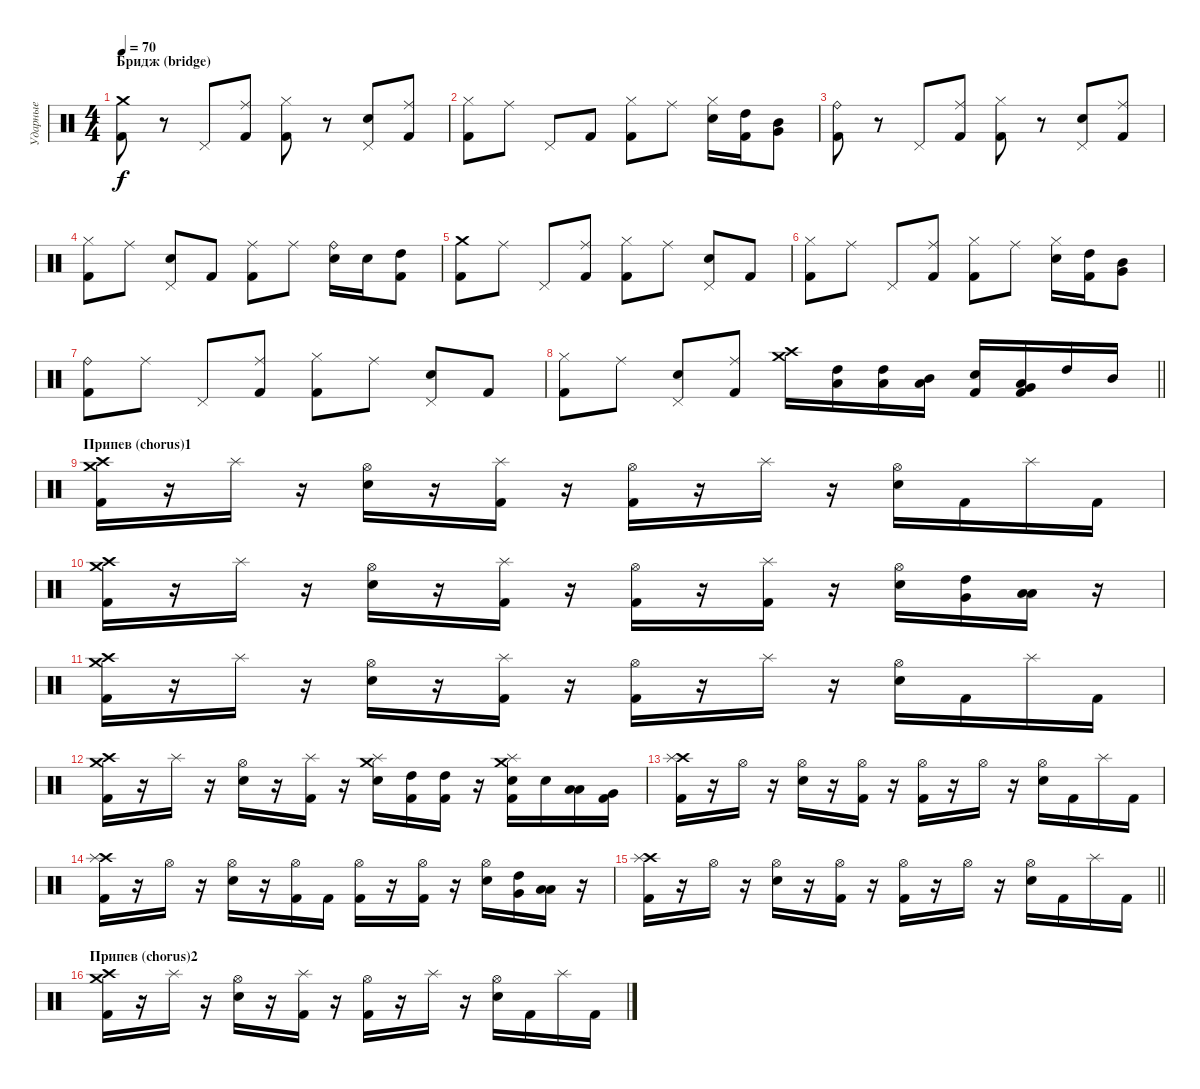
\track ("Ударные" "Ударные") {instrument percussion}
\staff {score}
\articulation defaults
\ts (4 4)
\section ("" "Бридж (bridge)")
\tempo 70
\clef neutral
\ks c
("Crash medium (hit)" "Kick (hit) 2").8{dy f} r.8 "Pedal Hi-Hat (hit)".8 ("Ride (middle)" "Kick (hit) 2").8 ("Hi-Hat (closed)" "Kick (hit) 2").8 r.8 ("Pedal Hi-Hat (hit)" "Snare (hit) 2").8 ("Ride (middle)" "Kick (hit) 2").8 |
("Hi-Hat (closed)" "Kick (hit) 2").8 "Ride (middle)".8 "Pedal Hi-Hat (hit)".8 "Kick (hit) 2".8 ("Hi-Hat (closed)" "Kick (hit) 2").8 "Ride (middle)".8 ("Hi-Hat (closed)" "Snare (hit) 2").16 ("High Tom (hit)" "Kick (hit) 2").16 ("Mid Tom (hit)" "Very Low Tom (hit)").8 |
("Ride (bell)" "Kick (hit) 2").8 r.8 "Pedal Hi-Hat (hit)".8 ("Ride (middle)" "Kick (hit) 2").8 ("Hi-Hat (closed)" "Kick (hit) 2").8 r.8 ("Pedal Hi-Hat (hit)" "Snare (hit) 2").8 ("Ride (middle)" "Kick (hit) 2").8 |
("Hi-Hat (closed)" "Kick (hit) 2").8 "Ride (middle)".8 ("Pedal Hi-Hat (hit)" "Snare (hit) 2").8 "Kick (hit) 2".8 ("Ride (middle)" "Kick (hit) 2").8 "Ride (middle)".8 ("Ride (bell)" "Snare (hit) 2").16 "Snare (hit) 2".16 ("High Tom (hit)" "Kick (hit) 2").8 |
("Crash medium (hit)" "Kick (hit) 2").8 "Ride (middle)".8 "Pedal Hi-Hat (hit)".8 ("Ride (middle)" "Kick (hit) 2").8 ("Hi-Hat (closed)" "Kick (hit) 2").8 "Ride (middle)".8 ("Pedal Hi-Hat (hit)" "Snare (hit) 2").8 "Kick (hit) 2".8 |
("Hi-Hat (closed)" "Kick (hit) 2").8 "Ride (middle)".8 "Pedal Hi-Hat (hit)".8 ("Ride (middle)" "Kick (hit) 2").8 ("Hi-Hat (closed)" "Kick (hit) 2").8 "Ride (middle)".8 ("Hi-Hat (closed)" "Snare (hit) 2").16 ("High Tom (hit)" "Kick (hit) 2").16 ("Mid Tom (hit)" "Very Low Tom (hit)").8 |
("Ride (bell)" "Kick (hit) 2").8 "Ride (middle)".8 "Pedal Hi-Hat (hit)".8 ("Ride (middle)" "Kick (hit) 2").8 ("Hi-Hat (closed)" "Kick (hit) 2").8 "Ride (middle)".8 ("Pedal Hi-Hat (hit)" "Snare (hit) 2").8 "Kick (hit) 2".8 |
\barLineRight lightlight
("Hi-Hat (closed)" "Kick (hit) 2").8 "Ride (middle)".8 ("Pedal Hi-Hat (hit)" "Snare (hit) 2").8 ("Ride (middle)" "Kick (hit) 2").8 ("Crash high (hit)" "Crash medium (hit)").16 ("High Tom (hit)" "Low Floor Tom (hit)").16 ("High Tom (hit)" "Low Floor Tom (hit)").16 ("Mid Tom (hit)" "Low Floor Tom (hit)").16 ("Snare (hit) 2" "Kick (hit) 2").16 ("Low Tom (hit)" "Very Low Tom (hit)" "Kick (hit) 2").16 "High Tom (hit)".16 "Mid Tom (hit)".16 |
\section ("" "Припев (chorus)1")
("Crash high (hit)" "Crash medium (hit)" "Kick (hit) 2").16 r.16 "Splash (hit)".16 r.16 ("Hi-Hat (open)" "Snare (hit) 2").16 r.16 ("Splash (hit)" "Kick (hit) 2").16 r.16 ("Hi-Hat (open)" "Kick (hit) 2").16 r.16 "Splash (hit)".16 r.16 ("Hi-Hat (open)" "Snare (hit) 2").16 "Kick (hit) 2".16 "Splash (hit)".16 "Kick (hit) 2".16 |
("Crash high (hit)" "Crash medium (hit)" "Kick (hit) 2").16 r.16 "Splash (hit)".16 r.16 ("Hi-Hat (open)" "Snare (hit) 2").16 r.16 ("Splash (hit)" "Kick (hit) 2").16 r.16 ("Hi-Hat (open)" "Kick (hit) 2").16 r.16 ("Splash (hit)" "Kick (hit) 2").16 r.16 ("Hi-Hat (open)" "Snare (hit) 2").16 ("High Tom (hit)" "Very Low Tom (hit)").16 ("Low Tom (hit)" "Low Floor Tom (hit)").16 r.16 |
("Crash high (hit)" "Crash medium (hit)" "Kick (hit) 2").16 r.16 "Splash (hit)".16 r.16 ("Hi-Hat (open)" "Snare (hit) 2").16 r.16 ("Splash (hit)" "Kick (hit) 2").16 r.16 ("Hi-Hat (open)" "Kick (hit) 2").16 r.16 "Splash (hit)".16 r.16 ("Hi-Hat (open)" "Snare (hit) 2").16 "Kick (hit) 2".16 "Splash (hit)".16 "Kick (hit) 2".16 |
("Crash high (hit)" "Crash medium (hit)" "Kick (hit) 2").16 r.16 "Splash (hit)".16 r.16 ("Hi-Hat (open)" "Snare (hit) 2").16 r.16 ("Splash (hit)" "Kick (hit) 2").16 r.16 ("Crash medium (hit)" "Splash (hit)" "Snare (hit) 2").16 ("High Tom (hit)" "Kick (hit) 2").16 ("High Tom (hit)" "Kick (hit) 2").16 r.16 ("Crash medium (hit)" "Splash (hit)" "Snare (hit) 2" "Kick (hit) 2").16 "Snare (hit) 2".16 ("Low Tom (hit)" "Low Floor Tom (hit)").16 ("Very Low Tom (hit)" "Kick (hit) 2").16 |
("Crash high (hit)" "Splash (hit)" "Kick (hit) 2").16 r.16 "Hi-Hat (open)".16 r.16 ("Hi-Hat (open)" "Snare (hit) 2").16 r.16 ("Hi-Hat (open)" "Kick (hit) 2").16 r.16 ("Hi-Hat (open)" "Kick (hit) 2").16 r.16 "Hi-Hat (open)".16 r.16 ("Hi-Hat (open)" "Snare (hit) 2").16 "Kick (hit) 2".16 "Splash (hit)".16 "Kick (hit) 2".16 |
("Crash high (hit)" "Splash (hit)" "Kick (hit) 2").16 r.16 "Hi-Hat (open)".16 r.16 ("Hi-Hat (open)" "Snare (hit) 2").16 r.16 ("Hi-Hat (open)" "Kick (hit) 2").16 "Kick (hit) 2".16 ("Hi-Hat (open)" "Kick (hit) 2").16 r.16 ("Hi-Hat (open)" "Kick (hit) 2").16 r.16 ("Hi-Hat (open)" "Snare (hit) 2").16 ("High Tom (hit)" "Very Low Tom (hit)").16 ("Low Tom (hit)" "Low Floor Tom (hit)").16 r.16 |
\barLineRight lightlight
("Crash high (hit)" "Splash (hit)" "Kick (hit) 2").16 r.16 "Hi-Hat (open)".16 r.16 ("Hi-Hat (open)" "Snare (hit) 2").16 r.16 ("Hi-Hat (open)" "Kick (hit) 2").16 r.16 ("Hi-Hat (open)" "Kick (hit) 2").16 r.16 "Hi-Hat (open)".16 r.16 ("Hi-Hat (open)" "Snare (hit) 2").16 "Kick (hit) 2".16 "Splash (hit)".16 "Kick (hit) 2".16 |
\section ("" "Припев (chorus)2")
("Crash high (hit)" "Crash medium (hit)" "Kick (hit) 2").16 r.16 "Splash (hit)".16 r.16 ("Hi-Hat (open)" "Snare (hit) 2").16 r.16 ("Splash (hit)" "Kick (hit) 2").16 r.16 ("Hi-Hat (open)" "Kick (hit) 2").16 r.16 "Splash (hit)".16 r.16 ("Hi-Hat (open)" "Snare (hit) 2").16 "Kick (hit) 2".16 "Splash (hit)".16 "Kick (hit) 2".16
